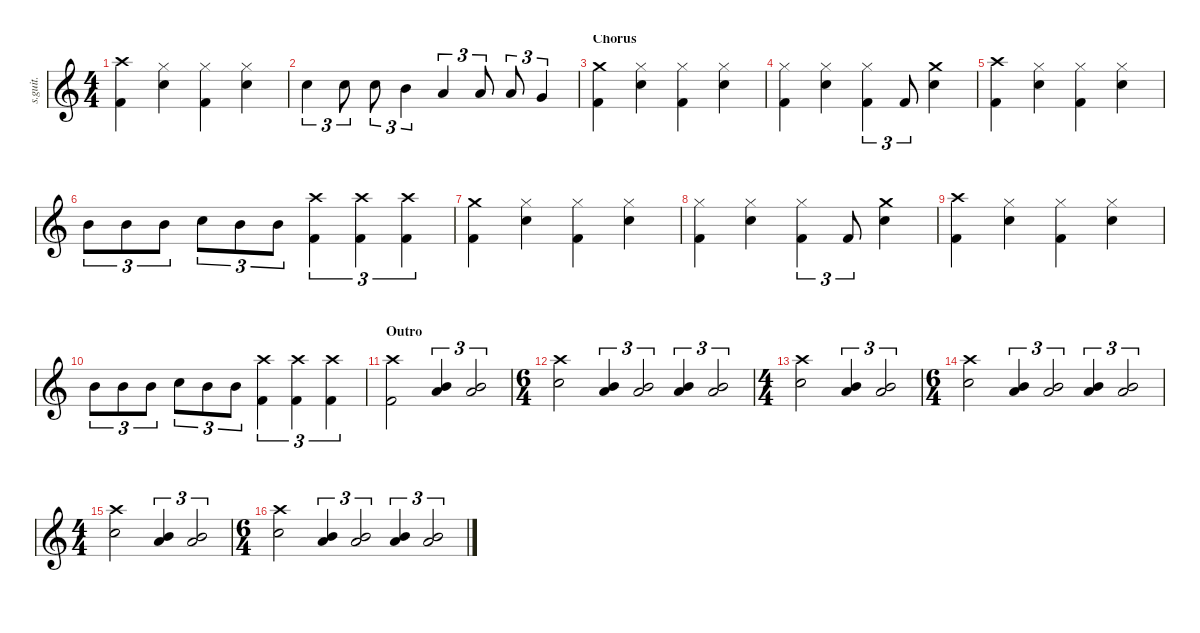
\defaultSystemsLayout 4
\hideDynamics
\bracketExtendMode nobrackets
\track ("Lars Ulrich (Drums)" "s.guit.") {instrument percussion}
\staff {score}
\articulation defaults
\ts (4 4)
\tempo (118 hide)
\clef g2
\ks c
("Crash high (hit)" "Kick (hit) 2").4{lyrics (0 "") lyrics (1 "") lyrics (2 "") lyrics (3 "") lyrics (4 "") dy f} ("Hi-Hat (closed)" "Snare (hit) 2").4{lyrics (0 "") lyrics (1 "") lyrics (2 "") lyrics (3 "") lyrics (4 "")} ("Hi-Hat (closed)" "Kick (hit) 2").4{lyrics (0 "") lyrics (1 "") lyrics (2 "") lyrics (3 "") lyrics (4 "")} ("Hi-Hat (closed)" "Snare (hit) 2").4{lyrics (0 "") lyrics (1 "") lyrics (2 "") lyrics (3 "") lyrics (4 "")} |
"Snare (hit) 2".4{tu (3 2) lyrics (0 "") lyrics (1 "") lyrics (2 "") lyrics (3 "") lyrics (4 "")} "Snare (hit) 2".8{tu (3 2) lyrics (0 "") lyrics (1 "") lyrics (2 "") lyrics (3 "") lyrics (4 "")} "Snare (hit) 2".8{tu (3 2) lyrics (0 "") lyrics (1 "") lyrics (2 "") lyrics (3 "") lyrics (4 "")} "Mid Tom (hit)".4{tu (3 2) lyrics (0 "") lyrics (1 "") lyrics (2 "") lyrics (3 "") lyrics (4 "")} "Low Tom (hit)".4{tu (3 2) lyrics (0 "") lyrics (1 "") lyrics (2 "") lyrics (3 "") lyrics (4 "")} "Low Tom (hit)".8{tu (3 2) lyrics (0 "") lyrics (1 "") lyrics (2 "") lyrics (3 "") lyrics (4 "")} "Low Tom (hit)".8{tu (3 2) lyrics (0 "") lyrics (1 "") lyrics (2 "") lyrics (3 "") lyrics (4 "")} "Very Low Tom (hit)".4{tu (3 2) lyrics (0 "") lyrics (1 "") lyrics (2 "") lyrics (3 "") lyrics (4 "")} |
\section ("" "Chorus")
("Crash medium (hit)" "Kick (hit) 2").4{lyrics (0 "") lyrics (1 "") lyrics (2 "") lyrics (3 "") lyrics (4 "")} ("Hi-Hat (closed)" "Snare (hit) 2").4{lyrics (0 "") lyrics (1 "") lyrics (2 "") lyrics (3 "") lyrics (4 "")} ("Hi-Hat (closed)" "Kick (hit) 2").4{lyrics (0 "") lyrics (1 "") lyrics (2 "") lyrics (3 "") lyrics (4 "")} ("Hi-Hat (closed)" "Snare (hit) 2").4{lyrics (0 "") lyrics (1 "") lyrics (2 "") lyrics (3 "") lyrics (4 "")} |
("Hi-Hat (closed)" "Kick (hit) 2").4{lyrics (0 "") lyrics (1 "") lyrics (2 "") lyrics (3 "") lyrics (4 "")} ("Hi-Hat (closed)" "Snare (hit) 2").4{lyrics (0 "") lyrics (1 "") lyrics (2 "") lyrics (3 "") lyrics (4 "")} ("Hi-Hat (closed)" "Kick (hit) 2").4{tu (3 2) lyrics (0 "") lyrics (1 "") lyrics (2 "") lyrics (3 "") lyrics (4 "")} "Kick (hit) 2".8{tu (3 2) lyrics (0 "") lyrics (1 "") lyrics (2 "") lyrics (3 "") lyrics (4 "")} ("Crash medium (hit)" "Snare (hit) 2").4{lyrics (0 "") lyrics (1 "") lyrics (2 "") lyrics (3 "") lyrics (4 "")} |
("Crash high (hit)" "Kick (hit) 2").4{lyrics (0 "") lyrics (1 "") lyrics (2 "") lyrics (3 "") lyrics (4 "")} ("Hi-Hat (closed)" "Snare (hit) 2").4{lyrics (0 "") lyrics (1 "") lyrics (2 "") lyrics (3 "") lyrics (4 "")} ("Hi-Hat (closed)" "Kick (hit) 2").4{lyrics (0 "") lyrics (1 "") lyrics (2 "") lyrics (3 "") lyrics (4 "")} ("Hi-Hat (closed)" "Snare (hit) 2").4{lyrics (0 "") lyrics (1 "") lyrics (2 "") lyrics (3 "") lyrics (4 "")} |
"Mid Tom (hit)".8{tu (3 2) lyrics (0 "") lyrics (1 "") lyrics (2 "") lyrics (3 "") lyrics (4 "")} "Mid Tom (hit)".8{tu (3 2) lyrics (0 "") lyrics (1 "") lyrics (2 "") lyrics (3 "") lyrics (4 "")} "Mid Tom (hit)".8{tu (3 2) lyrics (0 "") lyrics (1 "") lyrics (2 "") lyrics (3 "") lyrics (4 "")} "Snare (hit) 2".8{tu (3 2) lyrics (0 "") lyrics (1 "") lyrics (2 "") lyrics (3 "") lyrics (4 "")} "Mid Tom (hit)".8{tu (3 2) lyrics (0 "") lyrics (1 "") lyrics (2 "") lyrics (3 "") lyrics (4 "")} "Mid Tom (hit)".8{tu (3 2) lyrics (0 "") lyrics (1 "") lyrics (2 "") lyrics (3 "") lyrics (4 "")} ("Crash high (hit)" "Kick (hit) 2").4{tu (3 2) lyrics (0 "") lyrics (1 "") lyrics (2 "") lyrics (3 "") lyrics (4 "")} ("Crash high (hit)" "Kick (hit) 2").4{tu (3 2) lyrics (0 "") lyrics (1 "") lyrics (2 "") lyrics (3 "") lyrics (4 "")} ("Crash high (hit)" "Kick (hit) 2").4{tu (3 2) lyrics (0 "") lyrics (1 "") lyrics (2 "") lyrics (3 "") lyrics (4 "")} |
("Crash medium (hit)" "Kick (hit) 2").4{lyrics (0 "") lyrics (1 "") lyrics (2 "") lyrics (3 "") lyrics (4 "")} ("Hi-Hat (closed)" "Snare (hit) 2").4{lyrics (0 "") lyrics (1 "") lyrics (2 "") lyrics (3 "") lyrics (4 "")} ("Hi-Hat (closed)" "Kick (hit) 2").4{lyrics (0 "") lyrics (1 "") lyrics (2 "") lyrics (3 "") lyrics (4 "")} ("Hi-Hat (closed)" "Snare (hit) 2").4{lyrics (0 "") lyrics (1 "") lyrics (2 "") lyrics (3 "") lyrics (4 "")} |
("Hi-Hat (closed)" "Kick (hit) 2").4{lyrics (0 "") lyrics (1 "") lyrics (2 "") lyrics (3 "") lyrics (4 "")} ("Hi-Hat (closed)" "Snare (hit) 2").4{lyrics (0 "") lyrics (1 "") lyrics (2 "") lyrics (3 "") lyrics (4 "")} ("Hi-Hat (closed)" "Kick (hit) 2").4{tu (3 2) lyrics (0 "") lyrics (1 "") lyrics (2 "") lyrics (3 "") lyrics (4 "")} "Kick (hit) 2".8{tu (3 2) lyrics (0 "") lyrics (1 "") lyrics (2 "") lyrics (3 "") lyrics (4 "")} ("Crash medium (hit)" "Snare (hit) 2").4{lyrics (0 "") lyrics (1 "") lyrics (2 "") lyrics (3 "") lyrics (4 "")} |
("Crash high (hit)" "Kick (hit) 2").4{lyrics (0 "") lyrics (1 "") lyrics (2 "") lyrics (3 "") lyrics (4 "")} ("Hi-Hat (closed)" "Snare (hit) 2").4{lyrics (0 "") lyrics (1 "") lyrics (2 "") lyrics (3 "") lyrics (4 "")} ("Hi-Hat (closed)" "Kick (hit) 2").4{lyrics (0 "") lyrics (1 "") lyrics (2 "") lyrics (3 "") lyrics (4 "")} ("Hi-Hat (closed)" "Snare (hit) 2").4{lyrics (0 "") lyrics (1 "") lyrics (2 "") lyrics (3 "") lyrics (4 "")} |
"Mid Tom (hit)".8{tu (3 2) lyrics (0 "") lyrics (1 "") lyrics (2 "") lyrics (3 "") lyrics (4 "")} "Mid Tom (hit)".8{tu (3 2) lyrics (0 "") lyrics (1 "") lyrics (2 "") lyrics (3 "") lyrics (4 "")} "Mid Tom (hit)".8{tu (3 2) lyrics (0 "") lyrics (1 "") lyrics (2 "") lyrics (3 "") lyrics (4 "")} "Snare (hit) 2".8{tu (3 2) lyrics (0 "") lyrics (1 "") lyrics (2 "") lyrics (3 "") lyrics (4 "")} "Mid Tom (hit)".8{tu (3 2) lyrics (0 "") lyrics (1 "") lyrics (2 "") lyrics (3 "") lyrics (4 "")} "Mid Tom (hit)".8{tu (3 2) lyrics (0 "") lyrics (1 "") lyrics (2 "") lyrics (3 "") lyrics (4 "")} ("Crash high (hit)" "Kick (hit) 2").4{tu (3 2) lyrics (0 "") lyrics (1 "") lyrics (2 "") lyrics (3 "") lyrics (4 "")} ("Crash high (hit)" "Kick (hit) 2").4{tu (3 2) lyrics (0 "") lyrics (1 "") lyrics (2 "") lyrics (3 "") lyrics (4 "")} ("Crash high (hit)" "Kick (hit) 2").4{tu (3 2) lyrics (0 "") lyrics (1 "") lyrics (2 "") lyrics (3 "") lyrics (4 "")} |
\section ("" "Outro")
("Crash high (hit)" "Kick (hit) 2").2{lyrics (0 "") lyrics (1 "") lyrics (2 "") lyrics (3 "") lyrics (4 "") dy fff} ("Low Tom (hit)" "Mid Tom (hit)").4{tu (3 2) lyrics (0 "") lyrics (1 "") lyrics (2 "") lyrics (3 "") lyrics (4 "")} ("Low Tom (hit)" "Mid Tom (hit)").2{tu (3 2) lyrics (0 "") lyrics (1 "") lyrics (2 "") lyrics (3 "") lyrics (4 "")} |
\ts (6 4)
\beaming (8 2 2 2 2)
("Crash high (hit)" "Snare (hit) 2").2{lyrics (0 "") lyrics (1 "") lyrics (2 "") lyrics (3 "") lyrics (4 "")} ("Low Tom (hit)" "Mid Tom (hit)").4{tu (3 2) lyrics (0 "") lyrics (1 "") lyrics (2 "") lyrics (3 "") lyrics (4 "")} ("Low Tom (hit)" "Mid Tom (hit)").2{tu (3 2) lyrics (0 "") lyrics (1 "") lyrics (2 "") lyrics (3 "") lyrics (4 "")} ("Low Tom (hit)" "Mid Tom (hit)").4{tu (3 2) lyrics (0 "") lyrics (1 "") lyrics (2 "") lyrics (3 "") lyrics (4 "")} ("Low Tom (hit)" "Mid Tom (hit)").2{tu (3 2) lyrics (0 "") lyrics (1 "") lyrics (2 "") lyrics (3 "") lyrics (4 "")} |
\ts (4 4)
\beaming (8 2 2 2 2)
("Crash high (hit)" "Snare (hit) 2").2{lyrics (0 "") lyrics (1 "") lyrics (2 "") lyrics (3 "") lyrics (4 "")} ("Low Tom (hit)" "Mid Tom (hit)").4{tu (3 2) lyrics (0 "") lyrics (1 "") lyrics (2 "") lyrics (3 "") lyrics (4 "")} ("Low Tom (hit)" "Mid Tom (hit)").2{tu (3 2) lyrics (0 "") lyrics (1 "") lyrics (2 "") lyrics (3 "") lyrics (4 "")} |
\ts (6 4)
\beaming (8 2 2 2 2)
("Crash high (hit)" "Snare (hit) 2").2{lyrics (0 "") lyrics (1 "") lyrics (2 "") lyrics (3 "") lyrics (4 "")} ("Low Tom (hit)" "Mid Tom (hit)").4{tu (3 2) lyrics (0 "") lyrics (1 "") lyrics (2 "") lyrics (3 "") lyrics (4 "")} ("Low Tom (hit)" "Mid Tom (hit)").2{tu (3 2) lyrics (0 "") lyrics (1 "") lyrics (2 "") lyrics (3 "") lyrics (4 "")} ("Low Tom (hit)" "Mid Tom (hit)").4{tu (3 2) lyrics (0 "") lyrics (1 "") lyrics (2 "") lyrics (3 "") lyrics (4 "")} ("Low Tom (hit)" "Mid Tom (hit)").2{tu (3 2) lyrics (0 "") lyrics (1 "") lyrics (2 "") lyrics (3 "") lyrics (4 "")} |
\ts (4 4)
\beaming (8 2 2 2 2)
("Crash high (hit)" "Snare (hit) 2").2{lyrics (0 "") lyrics (1 "") lyrics (2 "") lyrics (3 "") lyrics (4 "") dy ff} ("Low Tom (hit)" "Mid Tom (hit)").4{tu (3 2) lyrics (0 "") lyrics (1 "") lyrics (2 "") lyrics (3 "") lyrics (4 "")} ("Low Tom (hit)" "Mid Tom (hit)").2{tu (3 2) lyrics (0 "") lyrics (1 "") lyrics (2 "") lyrics (3 "") lyrics (4 "")} |
\ts (6 4)
\beaming (8 2 2 2 2)
("Crash high (hit)" "Snare (hit) 2").2{lyrics (0 "") lyrics (1 "") lyrics (2 "") lyrics (3 "") lyrics (4 "")} ("Low Tom (hit)" "Mid Tom (hit)").4{tu (3 2) lyrics (0 "") lyrics (1 "") lyrics (2 "") lyrics (3 "") lyrics (4 "")} ("Low Tom (hit)" "Mid Tom (hit)").2{tu (3 2) lyrics (0 "") lyrics (1 "") lyrics (2 "") lyrics (3 "") lyrics (4 "")} ("Low Tom (hit)" "Mid Tom (hit)").4{tu (3 2) lyrics (0 "") lyrics (1 "") lyrics (2 "") lyrics (3 "") lyrics (4 "")} ("Low Tom (hit)" "Mid Tom (hit)").2{tu (3 2) lyrics (0 "") lyrics (1 "") lyrics (2 "") lyrics (3 "") lyrics (4 "")}
